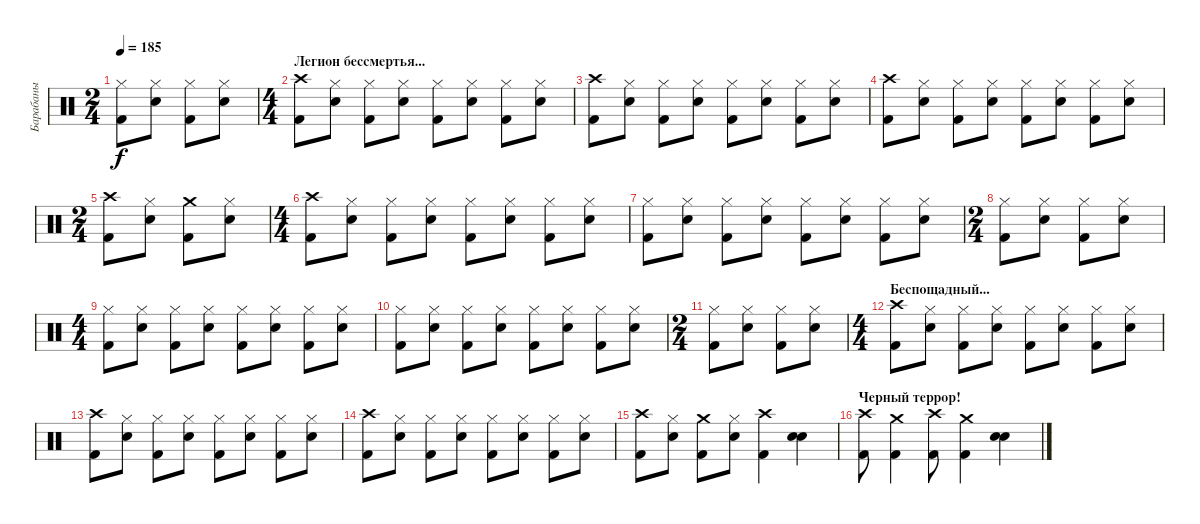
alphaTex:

\track ("Барабаны" "Барабаны") {instrument percussion}
\staff {score}
\articulation defaults
\ts (2 4)
\tempo 185
\clef neutral
\ks c
("Hi-Hat (closed)" "Kick (hit) 2").8{dy f} ("Hi-Hat (closed)" "Snare (hit) 2").8 ("Hi-Hat (closed)" "Kick (hit) 2").8 ("Hi-Hat (closed)" "Snare (hit) 2").8 |
\ts (4 4)
\section ("" "Легион бессмертья...")
("Crash high (hit)" "Kick (hit) 2").8 ("Hi-Hat (closed)" "Snare (hit) 2").8 ("Hi-Hat (closed)" "Kick (hit) 2").8 ("Hi-Hat (closed)" "Snare (hit) 2").8 ("Hi-Hat (closed)" "Kick (hit) 2").8 ("Hi-Hat (closed)" "Snare (hit) 2").8 ("Hi-Hat (closed)" "Kick (hit) 2").8 ("Hi-Hat (closed)" "Snare (hit) 2").8 |
("Crash high (hit)" "Kick (hit) 2").8 ("Hi-Hat (closed)" "Snare (hit) 2").8 ("Hi-Hat (closed)" "Kick (hit) 2").8 ("Hi-Hat (closed)" "Snare (hit) 2").8 ("Hi-Hat (closed)" "Kick (hit) 2").8 ("Hi-Hat (closed)" "Snare (hit) 2").8 ("Hi-Hat (closed)" "Kick (hit) 2").8 ("Hi-Hat (closed)" "Snare (hit) 2").8 |
("Crash high (hit)" "Kick (hit) 2").8 ("Hi-Hat (closed)" "Snare (hit) 2").8 ("Hi-Hat (closed)" "Kick (hit) 2").8 ("Hi-Hat (closed)" "Snare (hit) 2").8 ("Hi-Hat (closed)" "Kick (hit) 2").8 ("Hi-Hat (closed)" "Snare (hit) 2").8 ("Hi-Hat (closed)" "Kick (hit) 2").8 ("Hi-Hat (closed)" "Snare (hit) 2").8 |
\ts (2 4)
("Crash high (hit)" "Kick (hit) 2").8 ("Hi-Hat (closed)" "Snare (hit) 2").8 ("Crash medium (hit)" "Kick (hit) 2").8 ("Hi-Hat (closed)" "Snare (hit) 2").8 |
\ts (4 4)
("Crash high (hit)" "Kick (hit) 2").8 ("Hi-Hat (closed)" "Snare (hit) 2").8 ("Hi-Hat (closed)" "Kick (hit) 2").8 ("Hi-Hat (closed)" "Snare (hit) 2").8 ("Hi-Hat (closed)" "Kick (hit) 2").8 ("Hi-Hat (closed)" "Snare (hit) 2").8 ("Hi-Hat (closed)" "Kick (hit) 2").8 ("Hi-Hat (closed)" "Snare (hit) 2").8 |
("Hi-Hat (closed)" "Kick (hit) 2").8 ("Hi-Hat (closed)" "Snare (hit) 2").8 ("Hi-Hat (closed)" "Kick (hit) 2").8 ("Hi-Hat (closed)" "Snare (hit) 2").8 ("Hi-Hat (closed)" "Kick (hit) 2").8 ("Hi-Hat (closed)" "Snare (hit) 2").8 ("Hi-Hat (closed)" "Kick (hit) 2").8 ("Hi-Hat (closed)" "Snare (hit) 2").8 |
\ts (2 4)
("Hi-Hat (closed)" "Kick (hit) 2").8 ("Hi-Hat (closed)" "Snare (hit) 2").8 ("Hi-Hat (closed)" "Kick (hit) 2").8 ("Hi-Hat (closed)" "Snare (hit) 2").8 |
\ts (4 4)
("Hi-Hat (closed)" "Kick (hit) 2").8 ("Hi-Hat (closed)" "Snare (hit) 2").8 ("Hi-Hat (closed)" "Kick (hit) 2").8 ("Hi-Hat (closed)" "Snare (hit) 2").8 ("Hi-Hat (closed)" "Kick (hit) 2").8 ("Hi-Hat (closed)" "Snare (hit) 2").8 ("Hi-Hat (closed)" "Kick (hit) 2").8 ("Hi-Hat (closed)" "Snare (hit) 2").8 |
("Hi-Hat (closed)" "Kick (hit) 2").8 ("Hi-Hat (closed)" "Snare (hit) 2").8 ("Hi-Hat (closed)" "Kick (hit) 2").8 ("Hi-Hat (closed)" "Snare (hit) 2").8 ("Hi-Hat (closed)" "Kick (hit) 2").8 ("Hi-Hat (closed)" "Snare (hit) 2").8 ("Hi-Hat (closed)" "Kick (hit) 2").8 ("Hi-Hat (closed)" "Snare (hit) 2").8 |
\ts (2 4)
("Hi-Hat (closed)" "Kick (hit) 2").8 ("Hi-Hat (closed)" "Snare (hit) 2").8 ("Hi-Hat (closed)" "Kick (hit) 2").8 ("Hi-Hat (closed)" "Snare (hit) 2").8 |
\ts (4 4)
\section ("" "Беспощадный...")
("Crash high (hit)" "Kick (hit) 2").8 ("Hi-Hat (closed)" "Snare (hit) 2").8 ("Hi-Hat (closed)" "Kick (hit) 2").8 ("Hi-Hat (closed)" "Snare (hit) 2").8 ("Hi-Hat (closed)" "Kick (hit) 2").8 ("Hi-Hat (closed)" "Snare (hit) 2").8 ("Hi-Hat (closed)" "Kick (hit) 2").8 ("Hi-Hat (closed)" "Snare (hit) 2").8 |
("Crash high (hit)" "Kick (hit) 2").8 ("Hi-Hat (closed)" "Snare (hit) 2").8 ("Hi-Hat (closed)" "Kick (hit) 2").8 ("Hi-Hat (closed)" "Snare (hit) 2").8 ("Hi-Hat (closed)" "Kick (hit) 2").8 ("Hi-Hat (closed)" "Snare (hit) 2").8 ("Hi-Hat (closed)" "Kick (hit) 2").8 ("Hi-Hat (closed)" "Snare (hit) 2").8 |
("Crash high (hit)" "Kick (hit) 2").8 ("Hi-Hat (closed)" "Snare (hit) 2").8 ("Hi-Hat (closed)" "Kick (hit) 2").8 ("Hi-Hat (closed)" "Snare (hit) 2").8 ("Hi-Hat (closed)" "Kick (hit) 2").8 ("Hi-Hat (closed)" "Snare (hit) 2").8 ("Hi-Hat (closed)" "Kick (hit) 2").8 ("Hi-Hat (closed)" "Snare (hit) 2").8 |
("Crash high (hit)" "Kick (hit) 2").8 ("Hi-Hat (closed)" "Snare (hit) 2").8 ("Crash medium (hit)" "Kick (hit) 2").8 ("Hi-Hat (closed)" "Snare (hit) 2").8 ("Crash high (hit)" "Kick (hit) 2").4 ("Snare (hit) 2" "Snare (hit) 2").4 |
\section ("" "Черный террор!")
("Crash high (hit)" "Kick (hit) 2").8 ("Crash medium (hit)" "Kick (hit) 2").4 ("Crash high (hit)" "Kick (hit) 2").8 ("Crash medium (hit)" "Kick (hit) 2").4 ("Snare (hit) 2" "Snare (hit) 2").4
